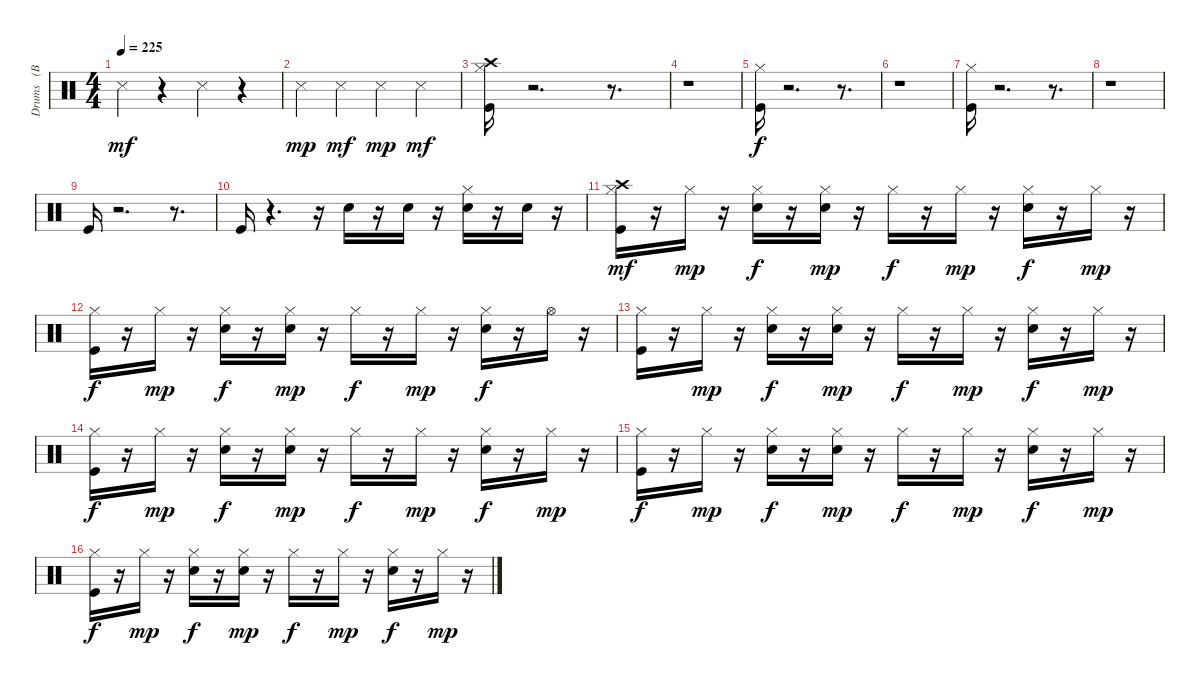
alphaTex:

\track ("Drums   (BB)" "Drums   (B") {instrument percussion}
\staff {score}
\articulation defaults
\ts (4 4)
\tempo 225
\clef neutral
\ks c "Snare (side stick) 3".4{dy mf}
r.4 "Snare (side stick) 3".4 r.4 |
"Snare (side stick) 3".4{dy mp} "Snare (side stick) 3".4{dy mf} "Snare (side stick) 3".4{dy mp} "Snare (side stick) 3".4{dy mf} |
("Kick (hit)" "Hi-Hat (closed)" "Crash high (hit)").16 r.2{d} r.8{d} |
r.1 |
("Kick (hit)" "Hi-Hat (closed)").16{dy f} r.2{d} r.8{d} |
r.1 |
("Kick (hit)" "Hi-Hat (closed)").16 r.2{d} r.8{d} |
r.1 |
"Kick (hit)".16 r.2{d} r.8{d} |
"Kick (hit)".16 r.4{d} r.16 "Snare (hit) 2".16 r.16 "Snare (hit) 2".16 r.16 ("Snare (hit) 2" "Hi-Hat (closed)").16 r.16 "Snare (hit) 2".16 r.16 |
("Kick (hit)" "Hi-Hat (closed)" "Crash high (hit)").16{dy mf} r.16 "Hi-Hat (closed)".16{dy mp} r.16 ("Snare (hit) 2" "Hi-Hat (closed)").16{dy f} r.16 ("Snare (hit) 2" "Hi-Hat (closed)").16{dy mp} r.16 "Hi-Hat (closed)".16{dy f} r.16 "Hi-Hat (closed)".16{dy mp} r.16 ("Snare (hit) 2" "Hi-Hat (closed)").16{dy f} r.16 "Hi-Hat (closed)".16{dy mp} r.16 |
("Kick (hit)" "Hi-Hat (closed)").16{dy f} r.16 "Hi-Hat (closed)".16{dy mp} r.16 ("Snare (hit) 2" "Hi-Hat (closed)").16{dy f} r.16 ("Snare (hit) 2" "Hi-Hat (closed)").16{dy mp} r.16 "Hi-Hat (closed)".16{dy f} r.16 "Hi-Hat (closed)".16{dy mp} r.16 ("Snare (hit) 2" "Hi-Hat (closed)").16{dy f} r.16 "Hi-Hat (open)".16 r.16 |
("Kick (hit)" "Hi-Hat (closed)").16 r.16 "Hi-Hat (closed)".16{dy mp} r.16 ("Snare (hit) 2" "Hi-Hat (closed)").16{dy f} r.16 ("Snare (hit) 2" "Hi-Hat (closed)").16{dy mp} r.16 "Hi-Hat (closed)".16{dy f} r.16 "Hi-Hat (closed)".16{dy mp} r.16 ("Snare (hit) 2" "Hi-Hat (closed)").16{dy f} r.16 "Hi-Hat (closed)".16{dy mp} r.16 |
("Kick (hit)" "Hi-Hat (closed)").16{dy f} r.16 "Hi-Hat (closed)".16{dy mp} r.16 ("Snare (hit) 2" "Hi-Hat (closed)").16{dy f} r.16 ("Snare (hit) 2" "Hi-Hat (closed)").16{dy mp} r.16 "Hi-Hat (closed)".16{dy f} r.16 "Hi-Hat (closed)".16{dy mp} r.16 ("Snare (hit) 2" "Hi-Hat (closed)").16{dy f} r.16 "Hi-Hat (closed)".16{dy mp} r.16 |
("Kick (hit)" "Hi-Hat (closed)").16{dy f} r.16 "Hi-Hat (closed)".16{dy mp} r.16 ("Snare (hit) 2" "Hi-Hat (closed)").16{dy f} r.16 ("Snare (hit) 2" "Hi-Hat (closed)").16{dy mp} r.16 "Hi-Hat (closed)".16{dy f} r.16 "Hi-Hat (closed)".16{dy mp} r.16 ("Snare (hit) 2" "Hi-Hat (closed)").16{dy f} r.16 "Hi-Hat (closed)".16{dy mp} r.16 |
("Kick (hit)" "Hi-Hat (closed)").16{dy f} r.16 "Hi-Hat (closed)".16{dy mp} r.16 ("Snare (hit) 2" "Hi-Hat (closed)").16{dy f} r.16 ("Snare (hit) 2" "Hi-Hat (closed)").16{dy mp} r.16 "Hi-Hat (closed)".16{dy f} r.16 "Hi-Hat (closed)".16{dy mp} r.16 ("Snare (hit) 2" "Hi-Hat (closed)").16{dy f} r.16 "Hi-Hat (closed)".16{dy mp} r.16
